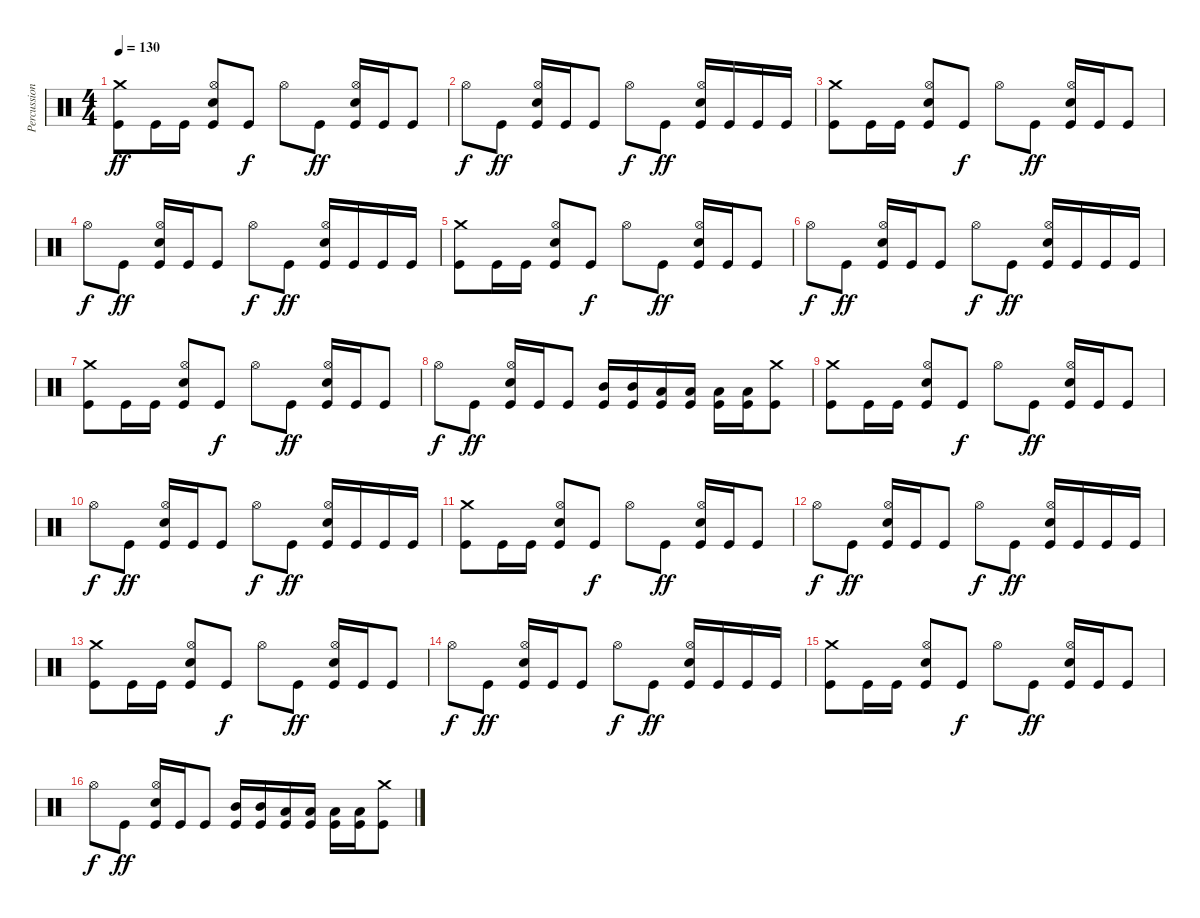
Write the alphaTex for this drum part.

\track ("Percussion" "Percussion") {instrument percussion}
\staff {score}
\articulation defaults
\ts (4 4)
\tempo 130
\clef neutral
\ks c
("Crash medium (hit)" "Kick (hit)").8{dy ff} "Kick (hit)".16 "Kick (hit)".16 ("Hi-Hat (open)" "Snare (hit) 2" "Kick (hit)").8 "Kick (hit)".8{dy f} "Hi-Hat (open)".8 "Kick (hit)".8{dy ff} ("Hi-Hat (open)" "Snare (hit) 2" "Kick (hit)").16 "Kick (hit)".16 "Kick (hit)".8 |
"Hi-Hat (open)".8{dy f} "Kick (hit)".8{dy ff} ("Hi-Hat (open)" "Snare (hit) 2" "Kick (hit)").16 "Kick (hit)".16 "Kick (hit)".8 "Hi-Hat (open)".8{dy f} "Kick (hit)".8{dy ff} ("Hi-Hat (open)" "Snare (hit) 2" "Kick (hit)").16 "Kick (hit)".16 "Kick (hit)".16 "Kick (hit)".16 |
("Crash medium (hit)" "Kick (hit)").8 "Kick (hit)".16 "Kick (hit)".16 ("Hi-Hat (open)" "Snare (hit) 2" "Kick (hit)").8 "Kick (hit)".8{dy f} "Hi-Hat (open)".8 "Kick (hit)".8{dy ff} ("Hi-Hat (open)" "Snare (hit) 2" "Kick (hit)").16 "Kick (hit)".16 "Kick (hit)".8 |
"Hi-Hat (open)".8{dy f} "Kick (hit)".8{dy ff} ("Hi-Hat (open)" "Snare (hit) 2" "Kick (hit)").16 "Kick (hit)".16 "Kick (hit)".8 "Hi-Hat (open)".8{dy f} "Kick (hit)".8{dy ff} ("Hi-Hat (open)" "Snare (hit) 2" "Kick (hit)").16 "Kick (hit)".16 "Kick (hit)".16 "Kick (hit)".16 |
("Crash medium (hit)" "Kick (hit)").8 "Kick (hit)".16 "Kick (hit)".16 ("Hi-Hat (open)" "Snare (hit) 2" "Kick (hit)").8 "Kick (hit)".8{dy f} "Hi-Hat (open)".8 "Kick (hit)".8{dy ff} ("Hi-Hat (open)" "Snare (hit) 2" "Kick (hit)").16 "Kick (hit)".16 "Kick (hit)".8 |
"Hi-Hat (open)".8{dy f} "Kick (hit)".8{dy ff} ("Hi-Hat (open)" "Snare (hit) 2" "Kick (hit)").16 "Kick (hit)".16 "Kick (hit)".8 "Hi-Hat (open)".8{dy f} "Kick (hit)".8{dy ff} ("Hi-Hat (open)" "Snare (hit) 2" "Kick (hit)").16 "Kick (hit)".16 "Kick (hit)".16 "Kick (hit)".16 |
("Crash medium (hit)" "Kick (hit)").8 "Kick (hit)".16 "Kick (hit)".16 ("Hi-Hat (open)" "Snare (hit) 2" "Kick (hit)").8 "Kick (hit)".8{dy f} "Hi-Hat (open)".8 "Kick (hit)".8{dy ff} ("Hi-Hat (open)" "Snare (hit) 2" "Kick (hit)").16 "Kick (hit)".16 "Kick (hit)".8 |
"Hi-Hat (open)".8{dy f} "Kick (hit)".8{dy ff} ("Hi-Hat (open)" "Snare (hit) 2" "Kick (hit)").16 "Kick (hit)".16 "Kick (hit)".8 ("Mid Tom (hit)" "Kick (hit)").16 ("Mid Tom (hit)" "Kick (hit)").16 ("Low Tom (hit)" "Kick (hit)").16 ("Low Tom (hit)" "Kick (hit)").16 ("Low Tom (hit)" "Kick (hit)").16 ("Low Tom (hit)" "Kick (hit)").16 ("Crash medium (hit)" "Kick (hit)").8 |
("Crash medium (hit)" "Kick (hit)").8 "Kick (hit)".16 "Kick (hit)".16 ("Hi-Hat (open)" "Snare (hit) 2" "Kick (hit)").8 "Kick (hit)".8{dy f} "Hi-Hat (open)".8 "Kick (hit)".8{dy ff} ("Hi-Hat (open)" "Snare (hit) 2" "Kick (hit)").16 "Kick (hit)".16 "Kick (hit)".8 |
"Hi-Hat (open)".8{dy f} "Kick (hit)".8{dy ff} ("Hi-Hat (open)" "Snare (hit) 2" "Kick (hit)").16 "Kick (hit)".16 "Kick (hit)".8 "Hi-Hat (open)".8{dy f} "Kick (hit)".8{dy ff} ("Hi-Hat (open)" "Snare (hit) 2" "Kick (hit)").16 "Kick (hit)".16 "Kick (hit)".16 "Kick (hit)".16 |
("Crash medium (hit)" "Kick (hit)").8 "Kick (hit)".16 "Kick (hit)".16 ("Hi-Hat (open)" "Snare (hit) 2" "Kick (hit)").8 "Kick (hit)".8{dy f} "Hi-Hat (open)".8 "Kick (hit)".8{dy ff} ("Hi-Hat (open)" "Snare (hit) 2" "Kick (hit)").16 "Kick (hit)".16 "Kick (hit)".8 |
"Hi-Hat (open)".8{dy f} "Kick (hit)".8{dy ff} ("Hi-Hat (open)" "Snare (hit) 2" "Kick (hit)").16 "Kick (hit)".16 "Kick (hit)".8 "Hi-Hat (open)".8{dy f} "Kick (hit)".8{dy ff} ("Hi-Hat (open)" "Snare (hit) 2" "Kick (hit)").16 "Kick (hit)".16 "Kick (hit)".16 "Kick (hit)".16 |
("Crash medium (hit)" "Kick (hit)").8 "Kick (hit)".16 "Kick (hit)".16 ("Hi-Hat (open)" "Snare (hit) 2" "Kick (hit)").8 "Kick (hit)".8{dy f} "Hi-Hat (open)".8 "Kick (hit)".8{dy ff} ("Hi-Hat (open)" "Snare (hit) 2" "Kick (hit)").16 "Kick (hit)".16 "Kick (hit)".8 |
"Hi-Hat (open)".8{dy f} "Kick (hit)".8{dy ff} ("Hi-Hat (open)" "Snare (hit) 2" "Kick (hit)").16 "Kick (hit)".16 "Kick (hit)".8 "Hi-Hat (open)".8{dy f} "Kick (hit)".8{dy ff} ("Hi-Hat (open)" "Snare (hit) 2" "Kick (hit)").16 "Kick (hit)".16 "Kick (hit)".16 "Kick (hit)".16 |
("Crash medium (hit)" "Kick (hit)").8 "Kick (hit)".16 "Kick (hit)".16 ("Hi-Hat (open)" "Snare (hit) 2" "Kick (hit)").8 "Kick (hit)".8{dy f} "Hi-Hat (open)".8 "Kick (hit)".8{dy ff} ("Hi-Hat (open)" "Snare (hit) 2" "Kick (hit)").16 "Kick (hit)".16 "Kick (hit)".8 |
"Hi-Hat (open)".8{dy f} "Kick (hit)".8{dy ff} ("Hi-Hat (open)" "Snare (hit) 2" "Kick (hit)").16 "Kick (hit)".16 "Kick (hit)".8 ("Mid Tom (hit)" "Kick (hit)").16 ("Mid Tom (hit)" "Kick (hit)").16 ("Low Tom (hit)" "Kick (hit)").16 ("Low Tom (hit)" "Kick (hit)").16 ("Low Tom (hit)" "Kick (hit)").16 ("Low Tom (hit)" "Kick (hit)").16 ("Crash medium (hit)" "Kick (hit)").8
